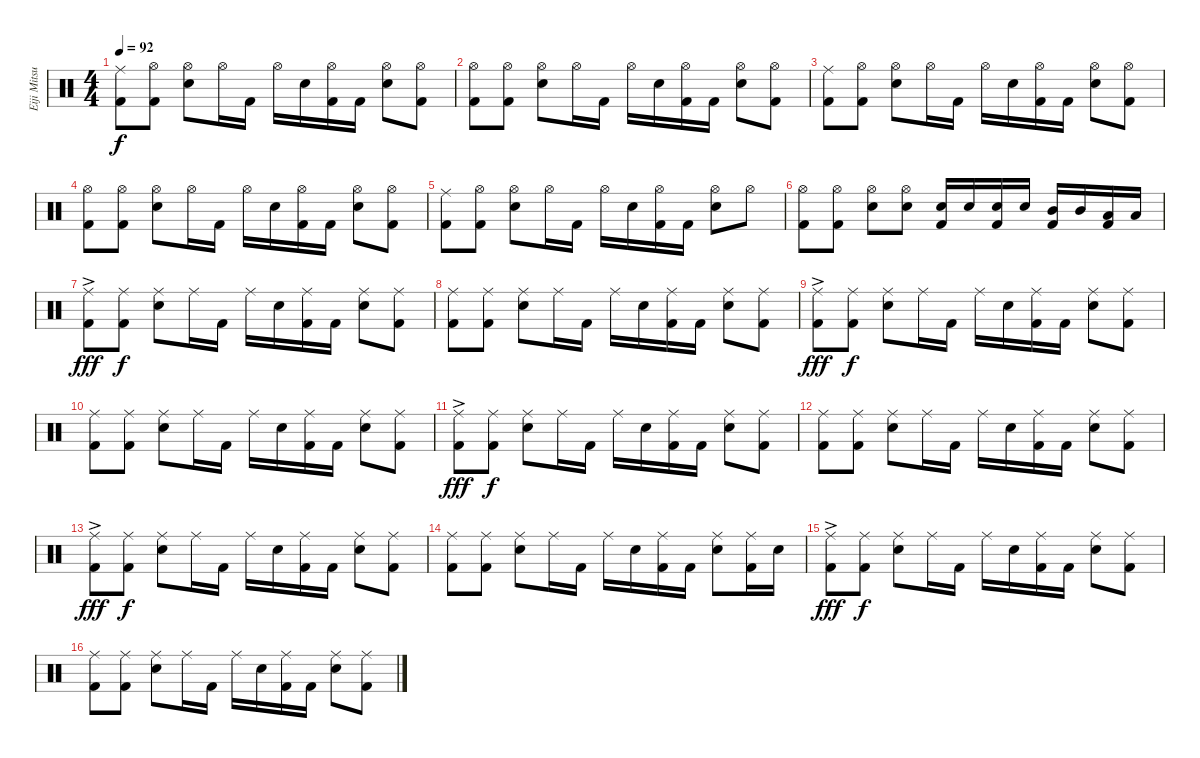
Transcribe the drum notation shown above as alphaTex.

\track ("Eiji Mitsuzono " "Eiji Mitsu") {instrument percussion}
\staff {score}
\articulation defaults
\ts (4 4)
\tempo 92
\clef neutral
\ks c
("Ride (middle)" "Kick (hit) 2").8{dy f} ("Hi-Hat (open)" "Kick (hit) 2").8 ("Hi-Hat (open)" "Snare (hit) 2").8 "Hi-Hat (open)".16 "Kick (hit) 2".16 "Hi-Hat (open)".16 "Snare (hit) 2".16 ("Hi-Hat (open)" "Kick (hit) 2").16 "Kick (hit) 2".16 ("Hi-Hat (open)" "Snare (hit) 2").8 ("Hi-Hat (open)" "Kick (hit) 2").8 |
("Hi-Hat (open)" "Kick (hit) 2").8 ("Hi-Hat (open)" "Kick (hit) 2").8 ("Hi-Hat (open)" "Snare (hit) 2").8 "Hi-Hat (open)".16 "Kick (hit) 2".16 "Hi-Hat (open)".16 "Snare (hit) 2".16 ("Hi-Hat (open)" "Kick (hit) 2").16 "Kick (hit) 2".16 ("Hi-Hat (open)" "Snare (hit) 2").8 ("Hi-Hat (open)" "Kick (hit) 2").8 |
("Ride (middle)" "Kick (hit) 2").8 ("Hi-Hat (open)" "Kick (hit) 2").8 ("Hi-Hat (open)" "Snare (hit) 2").8 "Hi-Hat (open)".16 "Kick (hit) 2".16 "Hi-Hat (open)".16 "Snare (hit) 2".16 ("Hi-Hat (open)" "Kick (hit) 2").16 "Kick (hit) 2".16 ("Hi-Hat (open)" "Snare (hit) 2").8 ("Hi-Hat (open)" "Kick (hit) 2").8 |
("Hi-Hat (open)" "Kick (hit) 2").8 ("Hi-Hat (open)" "Kick (hit) 2").8 ("Hi-Hat (open)" "Snare (hit) 2").8 "Hi-Hat (open)".16 "Kick (hit) 2".16 "Hi-Hat (open)".16 "Snare (hit) 2".16 ("Hi-Hat (open)" "Kick (hit) 2").16 "Kick (hit) 2".16 ("Hi-Hat (open)" "Snare (hit) 2").8 ("Hi-Hat (open)" "Kick (hit) 2").8 |
("Ride (middle)" "Kick (hit) 2").8 ("Hi-Hat (open)" "Kick (hit) 2").8 ("Hi-Hat (open)" "Snare (hit) 2").8 "Hi-Hat (open)".16 "Kick (hit) 2".16 "Hi-Hat (open)".16 "Snare (hit) 2".16 ("Hi-Hat (open)" "Kick (hit) 2").16 "Kick (hit) 2".16 ("Hi-Hat (open)" "Snare (hit) 2").8 "Hi-Hat (open)".8 |
("Hi-Hat (open)" "Kick (hit) 2").8 ("Hi-Hat (open)" "Kick (hit) 2").8 ("Hi-Hat (open)" "Snare (hit) 2").8 ("Hi-Hat (open)" "Snare (hit) 2").8 ("Snare (hit) 2" "Kick (hit) 2").16 "Snare (hit) 2".16 ("Snare (hit) 2" "Kick (hit) 2").16 "Snare (hit) 2".16 ("Mid Tom (hit)" "Kick (hit) 2").16 "Mid Tom (hit)".16 ("Low Tom (hit)" "Kick (hit) 2").16 "Low Tom (hit)".16 |
("Ride (middle)"{ac} "Kick (hit) 2").8{dy fff} ("Ride (middle)" "Kick (hit) 2").8{dy f} ("Ride (middle)" "Snare (hit) 2").8 "Ride (middle)".16 "Kick (hit) 2".16 "Ride (middle)".16 "Snare (hit) 2".16 ("Ride (middle)" "Kick (hit) 2").16 "Kick (hit) 2".16 ("Ride (middle)" "Snare (hit) 2").8 ("Ride (middle)" "Kick (hit) 2").8 |
("Ride (middle)" "Kick (hit) 2").8 ("Ride (middle)" "Kick (hit) 2").8 ("Ride (middle)" "Snare (hit) 2").8 "Ride (middle)".16 "Kick (hit) 2".16 "Ride (middle)".16 "Snare (hit) 2".16 ("Ride (middle)" "Kick (hit) 2").16 "Kick (hit) 2".16 ("Ride (middle)" "Snare (hit) 2").8 ("Ride (middle)" "Kick (hit) 2").8 |
("Ride (middle)"{ac} "Kick (hit) 2").8{dy fff} ("Ride (middle)" "Kick (hit) 2").8{dy f} ("Ride (middle)" "Snare (hit) 2").8 "Ride (middle)".16 "Kick (hit) 2".16 "Ride (middle)".16 "Snare (hit) 2".16 ("Ride (middle)" "Kick (hit) 2").16 "Kick (hit) 2".16 ("Ride (middle)" "Snare (hit) 2").8 ("Ride (middle)" "Kick (hit) 2").8 |
("Ride (middle)" "Kick (hit) 2").8 ("Ride (middle)" "Kick (hit) 2").8 ("Ride (middle)" "Snare (hit) 2").8 "Ride (middle)".16 "Kick (hit) 2".16 "Ride (middle)".16 "Snare (hit) 2".16 ("Ride (middle)" "Kick (hit) 2").16 "Kick (hit) 2".16 ("Ride (middle)" "Snare (hit) 2").8 ("Ride (middle)" "Kick (hit) 2").8 |
("Ride (middle)"{ac} "Kick (hit) 2").8{dy fff} ("Ride (middle)" "Kick (hit) 2").8{dy f} ("Ride (middle)" "Snare (hit) 2").8 "Ride (middle)".16 "Kick (hit) 2".16 "Ride (middle)".16 "Snare (hit) 2".16 ("Ride (middle)" "Kick (hit) 2").16 "Kick (hit) 2".16 ("Ride (middle)" "Snare (hit) 2").8 ("Ride (middle)" "Kick (hit) 2").8 |
("Ride (middle)" "Kick (hit) 2").8 ("Ride (middle)" "Kick (hit) 2").8 ("Ride (middle)" "Snare (hit) 2").8 "Ride (middle)".16 "Kick (hit) 2".16 "Ride (middle)".16 "Snare (hit) 2".16 ("Ride (middle)" "Kick (hit) 2").16 "Kick (hit) 2".16 ("Ride (middle)" "Snare (hit) 2").8 ("Ride (middle)" "Kick (hit) 2").8 |
("Ride (middle)"{ac} "Kick (hit) 2").8{dy fff} ("Ride (middle)" "Kick (hit) 2").8{dy f} ("Ride (middle)" "Snare (hit) 2").8 "Ride (middle)".16 "Kick (hit) 2".16 "Ride (middle)".16 "Snare (hit) 2".16 ("Ride (middle)" "Kick (hit) 2").16 "Kick (hit) 2".16 ("Ride (middle)" "Snare (hit) 2").8 ("Ride (middle)" "Kick (hit) 2").8 |
("Ride (middle)" "Kick (hit) 2").8 ("Ride (middle)" "Kick (hit) 2").8 ("Ride (middle)" "Snare (hit) 2").8 "Ride (middle)".16 "Kick (hit) 2".16 "Ride (middle)".16 "Snare (hit) 2".16 ("Ride (middle)" "Kick (hit) 2").16 "Kick (hit) 2".16 ("Ride (middle)" "Snare (hit) 2").8 ("Ride (middle)" "Kick (hit) 2").16 "Snare (hit) 2".16 |
("Ride (middle)"{ac} "Kick (hit) 2").8{dy fff} ("Ride (middle)" "Kick (hit) 2").8{dy f} ("Ride (middle)" "Snare (hit) 2").8 "Ride (middle)".16 "Kick (hit) 2".16 "Ride (middle)".16 "Snare (hit) 2".16 ("Ride (middle)" "Kick (hit) 2").16 "Kick (hit) 2".16 ("Ride (middle)" "Snare (hit) 2").8 ("Ride (middle)" "Kick (hit) 2").8 |
("Ride (middle)" "Kick (hit) 2").8 ("Ride (middle)" "Kick (hit) 2").8 ("Ride (middle)" "Snare (hit) 2").8 "Ride (middle)".16 "Kick (hit) 2".16 "Ride (middle)".16 "Snare (hit) 2".16 ("Ride (middle)" "Kick (hit) 2").16 "Kick (hit) 2".16 ("Ride (middle)" "Snare (hit) 2").8 ("Ride (middle)" "Kick (hit) 2").8
